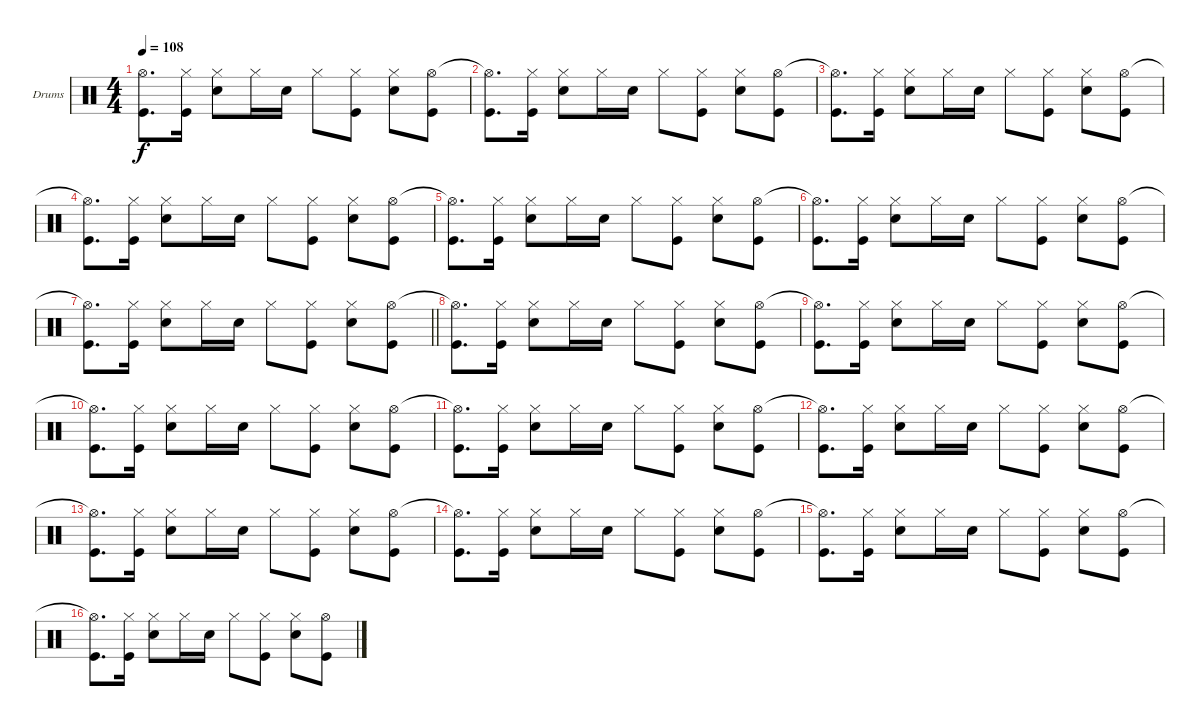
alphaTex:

\bracketExtendMode groupsimilarinstruments
\firstSystemTrackNameOrientation horizontal
\otherSystemsTrackNameOrientation horizontal
\track ("Drumkit" "Drums") {instrument percussion}
\staff {score}
\articulation defaults
\ts (4 4)
\tempo 108
\clef neutral
\ks c
("Hi-Hat (open)"{t} "Kick (hit)").8{d dy f} ("Hi-Hat (closed)" "Kick (hit)").16 ("Hi-Hat (closed)" "Snare (hit) 2").8 "Hi-Hat (closed)".16 "Snare (hit) 2".16 "Hi-Hat (closed)".8 ("Hi-Hat (closed)" "Kick (hit)").8 ("Hi-Hat (closed)" "Snare (hit) 2").8 ("Hi-Hat (open)" "Kick (hit)").8 |
("Hi-Hat (open)"{t} "Kick (hit)").8{d} ("Hi-Hat (closed)" "Kick (hit)").16 ("Hi-Hat (closed)" "Snare (hit) 2").8 "Hi-Hat (closed)".16 "Snare (hit) 2".16 "Hi-Hat (closed)".8 ("Hi-Hat (closed)" "Kick (hit)").8 ("Hi-Hat (closed)" "Snare (hit) 2").8 ("Hi-Hat (open)" "Kick (hit)").8 |
("Hi-Hat (open)"{t} "Kick (hit)").8{d} ("Hi-Hat (closed)" "Kick (hit)").16 ("Hi-Hat (closed)" "Snare (hit) 2").8 "Hi-Hat (closed)".16 "Snare (hit) 2".16 "Hi-Hat (closed)".8 ("Hi-Hat (closed)" "Kick (hit)").8 ("Hi-Hat (closed)" "Snare (hit) 2").8 ("Hi-Hat (open)" "Kick (hit)").8 |
("Hi-Hat (open)"{t} "Kick (hit)").8{d} ("Hi-Hat (closed)" "Kick (hit)").16 ("Hi-Hat (closed)" "Snare (hit) 2").8 "Hi-Hat (closed)".16 "Snare (hit) 2".16 "Hi-Hat (closed)".8 ("Hi-Hat (closed)" "Kick (hit)").8 ("Hi-Hat (closed)" "Snare (hit) 2").8 ("Hi-Hat (open)" "Kick (hit)").8 |
("Hi-Hat (open)"{t} "Kick (hit)").8{d} ("Hi-Hat (closed)" "Kick (hit)").16 ("Hi-Hat (closed)" "Snare (hit) 2").8 "Hi-Hat (closed)".16 "Snare (hit) 2".16 "Hi-Hat (closed)".8 ("Hi-Hat (closed)" "Kick (hit)").8 ("Hi-Hat (closed)" "Snare (hit) 2").8 ("Hi-Hat (open)" "Kick (hit)").8 |
("Hi-Hat (open)"{t} "Kick (hit)").8{d} ("Hi-Hat (closed)" "Kick (hit)").16 ("Hi-Hat (closed)" "Snare (hit) 2").8 "Hi-Hat (closed)".16 "Snare (hit) 2".16 "Hi-Hat (closed)".8 ("Hi-Hat (closed)" "Kick (hit)").8 ("Hi-Hat (closed)" "Snare (hit) 2").8 ("Hi-Hat (open)" "Kick (hit)").8 |
\barLineRight lightlight
("Hi-Hat (open)"{t} "Kick (hit)").8{d} ("Hi-Hat (closed)" "Kick (hit)").16 ("Hi-Hat (closed)" "Snare (hit) 2").8 "Hi-Hat (closed)".16 "Snare (hit) 2".16 "Hi-Hat (closed)".8 ("Hi-Hat (closed)" "Kick (hit)").8 ("Hi-Hat (closed)" "Snare (hit) 2").8 ("Hi-Hat (open)" "Kick (hit)").8 |
("Hi-Hat (open)"{t} "Kick (hit)").8{d} ("Hi-Hat (closed)" "Kick (hit)").16 ("Hi-Hat (closed)" "Snare (hit) 2").8 "Hi-Hat (closed)".16 "Snare (hit) 2".16 "Hi-Hat (closed)".8 ("Hi-Hat (closed)" "Kick (hit)").8 ("Hi-Hat (closed)" "Snare (hit) 2").8 ("Hi-Hat (open)" "Kick (hit)").8 |
("Hi-Hat (open)"{t} "Kick (hit)").8{d} ("Hi-Hat (closed)" "Kick (hit)").16 ("Hi-Hat (closed)" "Snare (hit) 2").8 "Hi-Hat (closed)".16 "Snare (hit) 2".16 "Hi-Hat (closed)".8 ("Hi-Hat (closed)" "Kick (hit)").8 ("Hi-Hat (closed)" "Snare (hit) 2").8 ("Hi-Hat (open)" "Kick (hit)").8 |
("Hi-Hat (open)"{t} "Kick (hit)").8{d} ("Hi-Hat (closed)" "Kick (hit)").16 ("Hi-Hat (closed)" "Snare (hit) 2").8 "Hi-Hat (closed)".16 "Snare (hit) 2".16 "Hi-Hat (closed)".8 ("Hi-Hat (closed)" "Kick (hit)").8 ("Hi-Hat (closed)" "Snare (hit) 2").8 ("Hi-Hat (open)" "Kick (hit)").8 |
("Hi-Hat (open)"{t} "Kick (hit)").8{d} ("Hi-Hat (closed)" "Kick (hit)").16 ("Hi-Hat (closed)" "Snare (hit) 2").8 "Hi-Hat (closed)".16 "Snare (hit) 2".16 "Hi-Hat (closed)".8 ("Hi-Hat (closed)" "Kick (hit)").8 ("Hi-Hat (closed)" "Snare (hit) 2").8 ("Hi-Hat (open)" "Kick (hit)").8 |
("Hi-Hat (open)"{t} "Kick (hit)").8{d} ("Hi-Hat (closed)" "Kick (hit)").16 ("Hi-Hat (closed)" "Snare (hit) 2").8 "Hi-Hat (closed)".16 "Snare (hit) 2".16 "Hi-Hat (closed)".8 ("Hi-Hat (closed)" "Kick (hit)").8 ("Hi-Hat (closed)" "Snare (hit) 2").8 ("Hi-Hat (open)" "Kick (hit)").8 |
("Hi-Hat (open)"{t} "Kick (hit)").8{d} ("Hi-Hat (closed)" "Kick (hit)").16 ("Hi-Hat (closed)" "Snare (hit) 2").8 "Hi-Hat (closed)".16 "Snare (hit) 2".16 "Hi-Hat (closed)".8 ("Hi-Hat (closed)" "Kick (hit)").8 ("Hi-Hat (closed)" "Snare (hit) 2").8 ("Hi-Hat (open)" "Kick (hit)").8 |
("Hi-Hat (open)"{t} "Kick (hit)").8{d} ("Hi-Hat (closed)" "Kick (hit)").16 ("Hi-Hat (closed)" "Snare (hit) 2").8 "Hi-Hat (closed)".16 "Snare (hit) 2".16 "Hi-Hat (closed)".8 ("Hi-Hat (closed)" "Kick (hit)").8 ("Hi-Hat (closed)" "Snare (hit) 2").8 ("Hi-Hat (open)" "Kick (hit)").8 |
("Hi-Hat (open)"{t} "Kick (hit)").8{d} ("Hi-Hat (closed)" "Kick (hit)").16 ("Hi-Hat (closed)" "Snare (hit) 2").8 "Hi-Hat (closed)".16 "Snare (hit) 2".16 "Hi-Hat (closed)".8 ("Hi-Hat (closed)" "Kick (hit)").8 ("Hi-Hat (closed)" "Snare (hit) 2").8 ("Hi-Hat (open)" "Kick (hit)").8 |
("Hi-Hat (open)"{t} "Kick (hit)").8{d} ("Hi-Hat (closed)" "Kick (hit)").16 ("Hi-Hat (closed)" "Snare (hit) 2").8 "Hi-Hat (closed)".16 "Snare (hit) 2".16 "Hi-Hat (closed)".8 ("Hi-Hat (closed)" "Kick (hit)").8 ("Hi-Hat (closed)" "Snare (hit) 2").8 ("Hi-Hat (open)" "Kick (hit)").8
